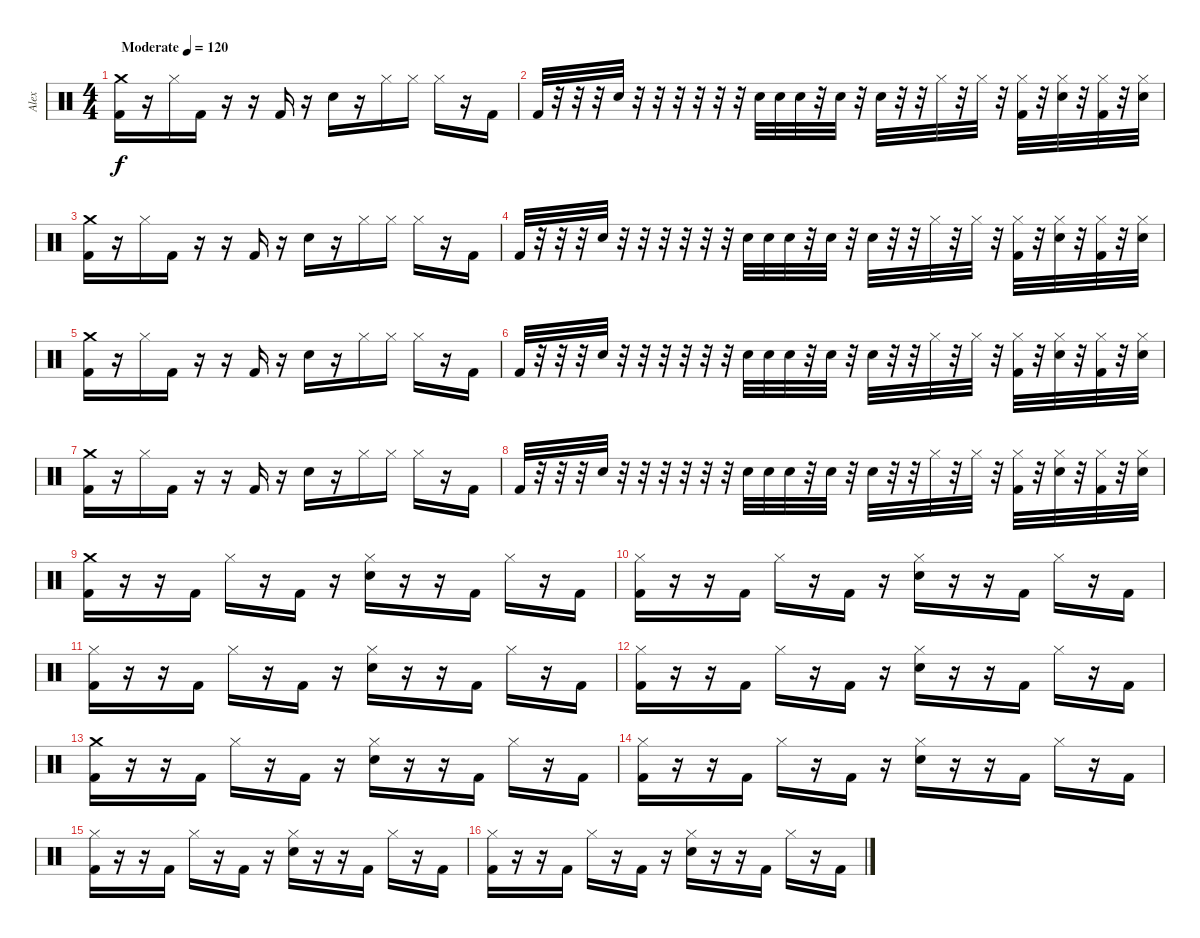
\track ("Alex" "Alex") {instrument percussion}
\staff {score}
\articulation defaults
\ts (4 4)
\tempo (120 "Moderate")
\clef neutral
\ks c
("Crash medium (hit)" "Kick (hit) 2").16{dy f} r.16 "Hi-Hat (closed)".16 "Kick (hit) 2".16 r.16 r.16 "Kick (hit) 2".16 r.16 "Snare (hit) 2".16 r.16 "Hi-Hat (closed)".16 "Hi-Hat (closed)".16 "Hi-Hat (closed)".16 r.16 "Kick (hit) 2".16 |
"Kick (hit) 2".32 r.32 r.32 r.32 "Snare (hit) 2".32 r.32 r.32 r.32 r.32 r.32 r.32 "Snare (hit) 2".32 "Snare (hit) 2".32 "Snare (hit) 2".32 r.32 "Snare (hit) 2".32 r.32 "Snare (hit) 2".32 r.32 r.32 "Hi-Hat (closed)".32 r.32 "Hi-Hat (closed)".32 r.32 ("Hi-Hat (closed)" "Kick (hit) 2").32 r.32 ("Hi-Hat (closed)" "Snare (hit) 2").32 r.32 ("Hi-Hat (closed)" "Kick (hit) 2").32 r.32 ("Hi-Hat (closed)" "Snare (hit) 2").32 |
("Crash medium (hit)" "Kick (hit) 2").16 r.16 "Hi-Hat (closed)".16 "Kick (hit) 2".16 r.16 r.16 "Kick (hit) 2".16 r.16 "Snare (hit) 2".16 r.16 "Hi-Hat (closed)".16 "Hi-Hat (closed)".16 "Hi-Hat (closed)".16 r.16 "Kick (hit) 2".16 |
"Kick (hit) 2".32 r.32 r.32 r.32 "Snare (hit) 2".32 r.32 r.32 r.32 r.32 r.32 r.32 "Snare (hit) 2".32 "Snare (hit) 2".32 "Snare (hit) 2".32 r.32 "Snare (hit) 2".32 r.32 "Snare (hit) 2".32 r.32 r.32 "Hi-Hat (closed)".32 r.32 "Hi-Hat (closed)".32 r.32 ("Hi-Hat (closed)" "Kick (hit) 2").32 r.32 ("Hi-Hat (closed)" "Snare (hit) 2").32 r.32 ("Hi-Hat (closed)" "Kick (hit) 2").32 r.32 ("Hi-Hat (closed)" "Snare (hit) 2").32 |
("Crash medium (hit)" "Kick (hit) 2").16 r.16 "Hi-Hat (closed)".16 "Kick (hit) 2".16 r.16 r.16 "Kick (hit) 2".16 r.16 "Snare (hit) 2".16 r.16 "Hi-Hat (closed)".16 "Hi-Hat (closed)".16 "Hi-Hat (closed)".16 r.16 "Kick (hit) 2".16 |
"Kick (hit) 2".32 r.32 r.32 r.32 "Snare (hit) 2".32 r.32 r.32 r.32 r.32 r.32 r.32 "Snare (hit) 2".32 "Snare (hit) 2".32 "Snare (hit) 2".32 r.32 "Snare (hit) 2".32 r.32 "Snare (hit) 2".32 r.32 r.32 "Hi-Hat (closed)".32 r.32 "Hi-Hat (closed)".32 r.32 ("Hi-Hat (closed)" "Kick (hit) 2").32 r.32 ("Hi-Hat (closed)" "Snare (hit) 2").32 r.32 ("Hi-Hat (closed)" "Kick (hit) 2").32 r.32 ("Hi-Hat (closed)" "Snare (hit) 2").32 |
("Crash medium (hit)" "Kick (hit) 2").16 r.16 "Hi-Hat (closed)".16 "Kick (hit) 2".16 r.16 r.16 "Kick (hit) 2".16 r.16 "Snare (hit) 2".16 r.16 "Hi-Hat (closed)".16 "Hi-Hat (closed)".16 "Hi-Hat (closed)".16 r.16 "Kick (hit) 2".16 |
"Kick (hit) 2".32 r.32 r.32 r.32 "Snare (hit) 2".32 r.32 r.32 r.32 r.32 r.32 r.32 "Snare (hit) 2".32 "Snare (hit) 2".32 "Snare (hit) 2".32 r.32 "Snare (hit) 2".32 r.32 "Snare (hit) 2".32 r.32 r.32 "Hi-Hat (closed)".32 r.32 "Hi-Hat (closed)".32 r.32 ("Hi-Hat (closed)" "Kick (hit) 2").32 r.32 ("Hi-Hat (closed)" "Snare (hit) 2").32 r.32 ("Hi-Hat (closed)" "Kick (hit) 2").32 r.32 ("Hi-Hat (closed)" "Snare (hit) 2").32 |
("Crash medium (hit)" "Kick (hit) 2").16 r.16 r.16 "Kick (hit) 2".16 "Hi-Hat (closed)".16 r.16 "Kick (hit) 2".16 r.16 ("Hi-Hat (closed)" "Snare (hit) 2").16 r.16 r.16 "Kick (hit) 2".16 "Hi-Hat (closed)".16 r.16 "Kick (hit) 2".16 |
("Hi-Hat (closed)" "Kick (hit) 2").16 r.16 r.16 "Kick (hit) 2".16 "Hi-Hat (closed)".16 r.16 "Kick (hit) 2".16 r.16 ("Hi-Hat (closed)" "Snare (hit) 2").16 r.16 r.16 "Kick (hit) 2".16 "Hi-Hat (closed)".16 r.16 "Kick (hit) 2".16 |
("Hi-Hat (closed)" "Kick (hit) 2").16 r.16 r.16 "Kick (hit) 2".16 "Hi-Hat (closed)".16 r.16 "Kick (hit) 2".16 r.16 ("Hi-Hat (closed)" "Snare (hit) 2").16 r.16 r.16 "Kick (hit) 2".16 "Hi-Hat (closed)".16 r.16 "Kick (hit) 2".16 |
("Hi-Hat (closed)" "Kick (hit) 2").16 r.16 r.16 "Kick (hit) 2".16 "Hi-Hat (closed)".16 r.16 "Kick (hit) 2".16 r.16 ("Hi-Hat (closed)" "Snare (hit) 2").16 r.16 r.16 "Kick (hit) 2".16 "Hi-Hat (closed)".16 r.16 "Kick (hit) 2".16 |
("Crash medium (hit)" "Kick (hit) 2").16 r.16 r.16 "Kick (hit) 2".16 "Hi-Hat (closed)".16 r.16 "Kick (hit) 2".16 r.16 ("Hi-Hat (closed)" "Snare (hit) 2").16 r.16 r.16 "Kick (hit) 2".16 "Hi-Hat (closed)".16 r.16 "Kick (hit) 2".16 |
("Hi-Hat (closed)" "Kick (hit) 2").16 r.16 r.16 "Kick (hit) 2".16 "Hi-Hat (closed)".16 r.16 "Kick (hit) 2".16 r.16 ("Hi-Hat (closed)" "Snare (hit) 2").16 r.16 r.16 "Kick (hit) 2".16 "Hi-Hat (closed)".16 r.16 "Kick (hit) 2".16 |
("Hi-Hat (closed)" "Kick (hit) 2").16 r.16 r.16 "Kick (hit) 2".16 "Hi-Hat (closed)".16 r.16 "Kick (hit) 2".16 r.16 ("Hi-Hat (closed)" "Snare (hit) 2").16 r.16 r.16 "Kick (hit) 2".16 "Hi-Hat (closed)".16 r.16 "Kick (hit) 2".16 |
("Hi-Hat (closed)" "Kick (hit) 2").16 r.16 r.16 "Kick (hit) 2".16 "Hi-Hat (closed)".16 r.16 "Kick (hit) 2".16 r.16 ("Hi-Hat (closed)" "Snare (hit) 2").16 r.16 r.16 "Kick (hit) 2".16 "Hi-Hat (closed)".16 r.16 "Kick (hit) 2".16
